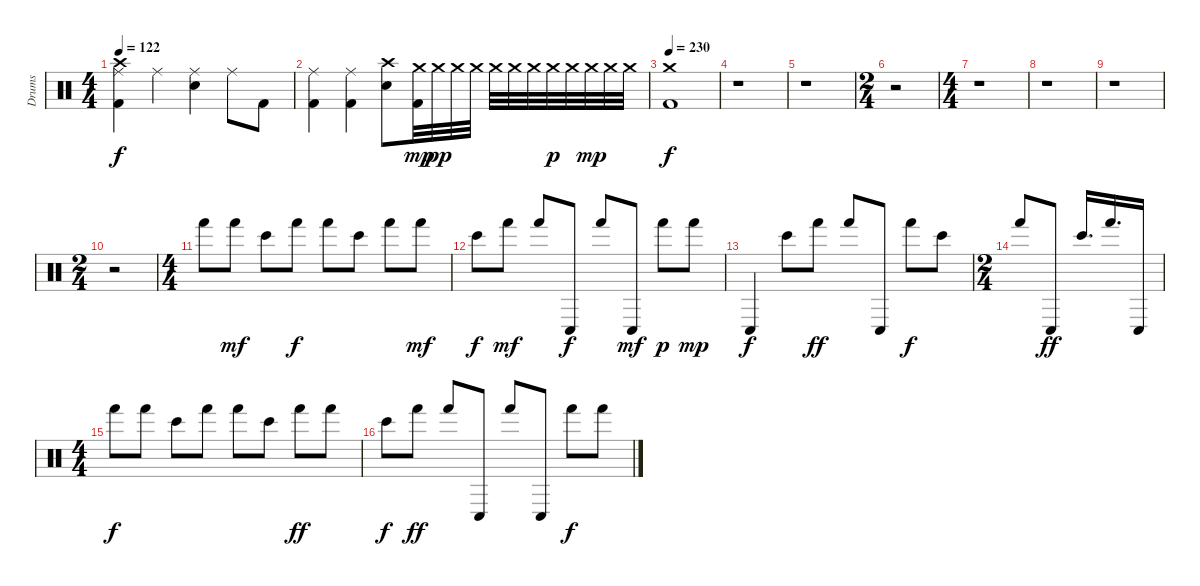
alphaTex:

\track ("Drums" "Drums") {instrument percussion}
\staff {score}
\articulation defaults
\ts (4 4)
\tempo 122
\clef neutral
\ks c
("Crash high (hit)" "Ride (middle)" "Kick (hit) 2").4{dy f} "Ride (middle)".4 ("Ride (middle)" "Electric Snare (hit)").4 "Ride (middle)".8 "Kick (hit) 2".8 |
("Ride (middle)" "Kick (hit) 2").4 ("Ride (middle)" "Kick (hit) 2").4 ("Crash high (hit)" "Electric Snare (hit)").8 ("Crash medium (hit)" "Kick (hit) 2").32{dy mp} "Crash medium (hit)".32{dy pp} "Crash medium (hit)".32 "Crash medium (hit)".32 "Crash medium (hit)".32 "Crash medium (hit)".32 "Crash medium (hit)".32 "Crash medium (hit)".32{dy p} "Crash medium (hit)".32 "Crash medium (hit)".32{dy mp} "Crash medium (hit)".32 "Crash medium (hit)".32 |
\tempo 230
("Crash medium (hit)" "Kick (hit) 2").1{dy f} |
r.1 |
r.1 |
\ts (2 4)
r.2 |
\ts (4 4)
r.1 |
r.1 |
r.1 |
\ts (2 4)
r.2 |
\ts (4 4)
"Hand (hit)".8 "Hand (hit)".8{dy mf} "Bongo High (hit)".8 "Hand (hit)".8{dy f} "Hand (hit)".8 "Bongo High (hit)".8 "Hand (hit)".8 "Hand (hit)".8{dy mf} |
"Bongo High (hit)".8{dy f} "Hand (hit)".8{dy mf} "Hand (hit)".8 "Conga low (hit)".8{dy f} "Hand (hit)".8 "Conga low (hit)".8{dy mf} "Hand (hit)".8{dy p} "Hand (hit)".8{dy mp} |
"Conga low (hit)".4{dy f} "Bongo High (hit)".8 "Hand (hit)".8{dy ff} "Hand (hit)".8 "Conga low (hit)".8 "Hand (hit)".8{dy f} "Bongo High (hit)".8 |
\ts (2 4)
"Hand (hit)".8 "Conga low (hit)".8{dy ff} "Bongo High (hit)".16{d} "Hand (hit)".16{d} "Conga low (hit)".16 |
\ts (4 4)
"Hand (hit)".8{dy f} "Hand (hit)".8 "Bongo High (hit)".8 "Hand (hit)".8 "Hand (hit)".8 "Bongo High (hit)".8 "Hand (hit)".8{dy ff} "Hand (hit)".8 |
"Bongo High (hit)".8{dy f} "Hand (hit)".8{dy ff} "Hand (hit)".8 "Conga low (hit)".8 "Hand (hit)".8 "Conga low (hit)".8 "Hand (hit)".8{dy f} "Hand (hit)".8
